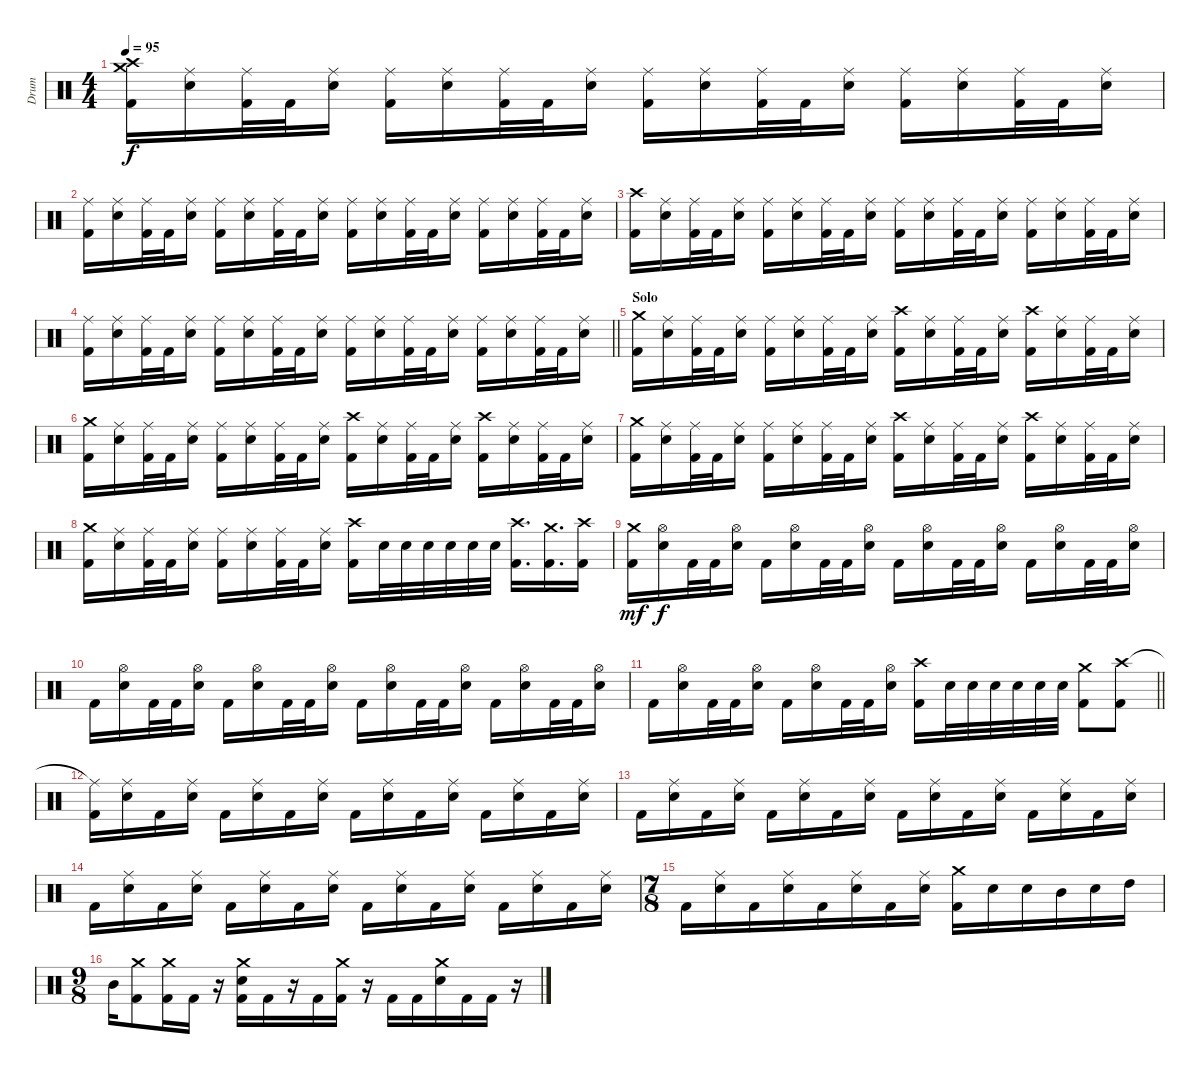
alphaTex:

\track ("Drum" "Drum") {instrument percussion}
\staff {score}
\articulation defaults
\ts (4 4)
\tempo 95
\clef neutral
\ks c
("Crash medium (hit)" "Crash high (hit)" "Kick (hit) 2").16{dy f} ("Ride (middle)" "Electric Snare (hit)").16 ("Ride (middle)" "Kick (hit) 2").32 "Kick (hit) 2".32 ("Ride (middle)" "Electric Snare (hit)").16 ("Ride (middle)" "Kick (hit) 2").16 ("Ride (middle)" "Electric Snare (hit)").16 ("Ride (middle)" "Kick (hit) 2").32 "Kick (hit) 2".32 ("Ride (middle)" "Electric Snare (hit)").16 ("Ride (middle)" "Kick (hit) 2").16 ("Ride (middle)" "Electric Snare (hit)").16 ("Ride (middle)" "Kick (hit) 2").32 "Kick (hit) 2".32 ("Ride (middle)" "Electric Snare (hit)").16 ("Ride (middle)" "Kick (hit) 2").16 ("Ride (middle)" "Electric Snare (hit)").16 ("Ride (middle)" "Kick (hit) 2").32 "Kick (hit) 2".32 ("Ride (middle)" "Electric Snare (hit)").16 |
("Ride (middle)" "Kick (hit) 2").16 ("Ride (middle)" "Electric Snare (hit)").16 ("Ride (middle)" "Kick (hit) 2").32 "Kick (hit) 2".32 ("Ride (middle)" "Electric Snare (hit)").16 ("Ride (middle)" "Kick (hit) 2").16 ("Ride (middle)" "Electric Snare (hit)").16 ("Ride (middle)" "Kick (hit) 2").32 "Kick (hit) 2".32 ("Ride (middle)" "Electric Snare (hit)").16 ("Ride (middle)" "Kick (hit) 2").16 ("Ride (middle)" "Electric Snare (hit)").16 ("Ride (middle)" "Kick (hit) 2").32 "Kick (hit) 2".32 ("Ride (middle)" "Electric Snare (hit)").16 ("Ride (middle)" "Kick (hit) 2").16 ("Ride (middle)" "Electric Snare (hit)").16 ("Ride (middle)" "Kick (hit) 2").32 "Kick (hit) 2".32 ("Ride (middle)" "Electric Snare (hit)").16 |
("Crash high (hit)" "Kick (hit) 2").16 ("Ride (middle)" "Electric Snare (hit)").16 ("Ride (middle)" "Kick (hit) 2").32 "Kick (hit) 2".32 ("Ride (middle)" "Electric Snare (hit)").16 ("Ride (middle)" "Kick (hit) 2").16 ("Ride (middle)" "Electric Snare (hit)").16 ("Ride (middle)" "Kick (hit) 2").32 "Kick (hit) 2".32 ("Ride (middle)" "Electric Snare (hit)").16 ("Ride (middle)" "Kick (hit) 2").16 ("Ride (middle)" "Electric Snare (hit)").16 ("Ride (middle)" "Kick (hit) 2").32 "Kick (hit) 2".32 ("Ride (middle)" "Electric Snare (hit)").16 ("Ride (middle)" "Kick (hit) 2").16 ("Ride (middle)" "Electric Snare (hit)").16 ("Ride (middle)" "Kick (hit) 2").32 "Kick (hit) 2".32 ("Ride (middle)" "Electric Snare (hit)").16 |
\barLineRight lightlight
("Ride (middle)" "Kick (hit) 2").16 ("Ride (middle)" "Electric Snare (hit)").16 ("Ride (middle)" "Kick (hit) 2").32 "Kick (hit) 2".32 ("Ride (middle)" "Electric Snare (hit)").16 ("Ride (middle)" "Kick (hit) 2").16 ("Ride (middle)" "Electric Snare (hit)").16 ("Ride (middle)" "Kick (hit) 2").32 "Kick (hit) 2".32 ("Ride (middle)" "Electric Snare (hit)").16 ("Ride (middle)" "Kick (hit) 2").16 ("Ride (middle)" "Electric Snare (hit)").16 ("Ride (middle)" "Kick (hit) 2").32 "Kick (hit) 2".32 ("Ride (middle)" "Electric Snare (hit)").16 ("Ride (middle)" "Kick (hit) 2").16 ("Ride (middle)" "Electric Snare (hit)").16 ("Ride (middle)" "Kick (hit) 2").32 "Kick (hit) 2".32 ("Ride (middle)" "Electric Snare (hit)").16 |
\section ("" "Solo")
("Crash medium (hit)" "Kick (hit) 2").16 ("Ride (middle)" "Electric Snare (hit)").16 ("Ride (middle)" "Kick (hit) 2").32 "Kick (hit) 2".32 ("Ride (middle)" "Electric Snare (hit)").16 ("Ride (middle)" "Kick (hit) 2").16 ("Ride (middle)" "Electric Snare (hit)").16 ("Ride (middle)" "Kick (hit) 2").32 "Kick (hit) 2".32 ("Ride (middle)" "Electric Snare (hit)").16 ("Crash high (hit)" "Kick (hit) 2").16 ("Ride (middle)" "Electric Snare (hit)").16 ("Ride (middle)" "Kick (hit) 2").32 "Kick (hit) 2".32 ("Ride (middle)" "Electric Snare (hit)").16 ("Crash high (hit)" "Kick (hit) 2").16 ("Ride (middle)" "Electric Snare (hit)").16 ("Ride (middle)" "Kick (hit) 2").32 "Kick (hit) 2".32 ("Ride (middle)" "Electric Snare (hit)").16 |
("Crash medium (hit)" "Kick (hit) 2").16 ("Ride (middle)" "Electric Snare (hit)").16 ("Ride (middle)" "Kick (hit) 2").32 "Kick (hit) 2".32 ("Ride (middle)" "Electric Snare (hit)").16 ("Ride (middle)" "Kick (hit) 2").16 ("Ride (middle)" "Electric Snare (hit)").16 ("Ride (middle)" "Kick (hit) 2").32 "Kick (hit) 2".32 ("Ride (middle)" "Electric Snare (hit)").16 ("Crash high (hit)" "Kick (hit) 2").16 ("Ride (middle)" "Electric Snare (hit)").16 ("Ride (middle)" "Kick (hit) 2").32 "Kick (hit) 2".32 ("Ride (middle)" "Electric Snare (hit)").16 ("Crash high (hit)" "Kick (hit) 2").16 ("Ride (middle)" "Electric Snare (hit)").16 ("Ride (middle)" "Kick (hit) 2").32 "Kick (hit) 2".32 ("Ride (middle)" "Electric Snare (hit)").16 |
("Crash medium (hit)" "Kick (hit) 2").16 ("Ride (middle)" "Electric Snare (hit)").16 ("Ride (middle)" "Kick (hit) 2").32 "Kick (hit) 2".32 ("Ride (middle)" "Electric Snare (hit)").16 ("Ride (middle)" "Kick (hit) 2").16 ("Ride (middle)" "Electric Snare (hit)").16 ("Ride (middle)" "Kick (hit) 2").32 "Kick (hit) 2".32 ("Ride (middle)" "Electric Snare (hit)").16 ("Crash high (hit)" "Kick (hit) 2").16 ("Ride (middle)" "Electric Snare (hit)").16 ("Ride (middle)" "Kick (hit) 2").32 "Kick (hit) 2".32 ("Ride (middle)" "Electric Snare (hit)").16 ("Crash high (hit)" "Kick (hit) 2").16 ("Ride (middle)" "Electric Snare (hit)").16 ("Ride (middle)" "Kick (hit) 2").32 "Kick (hit) 2".32 ("Ride (middle)" "Electric Snare (hit)").16 |
("Crash medium (hit)" "Kick (hit) 2").16 ("Ride (middle)" "Electric Snare (hit)").16 ("Ride (middle)" "Kick (hit) 2").32 "Kick (hit) 2".32 ("Ride (middle)" "Electric Snare (hit)").16 ("Ride (middle)" "Kick (hit) 2").16 ("Ride (middle)" "Electric Snare (hit)").16 ("Ride (middle)" "Kick (hit) 2").32 "Kick (hit) 2".32 ("Ride (middle)" "Electric Snare (hit)").16 ("Crash high (hit)" "Kick (hit) 2").16 "Electric Snare (hit)".32 "Electric Snare (hit)".32 "Electric Snare (hit)".32 "Electric Snare (hit)".32 "Electric Snare (hit)".32 "Electric Snare (hit)".32 ("Crash high (hit)" "Kick (hit) 2").16{d} ("Crash medium (hit)" "Kick (hit) 2").16{d} ("Crash high (hit)" "Kick (hit) 2").16 |
("Crash medium (hit)" "Kick (hit) 2").16{dy mf} ("Hi-Hat (open)" "Electric Snare (hit)").16{dy f} "Kick (hit) 2".32 "Kick (hit) 2".32 ("Hi-Hat (open)" "Electric Snare (hit)").16 "Kick (hit) 2".16 ("Hi-Hat (open)" "Electric Snare (hit)").16 "Kick (hit) 2".32 "Kick (hit) 2".32 ("Hi-Hat (open)" "Electric Snare (hit)").16 "Kick (hit) 2".16 ("Hi-Hat (open)" "Electric Snare (hit)").16 "Kick (hit) 2".32 "Kick (hit) 2".32 ("Hi-Hat (open)" "Electric Snare (hit)").16 "Kick (hit) 2".16 ("Hi-Hat (open)" "Electric Snare (hit)").16 "Kick (hit) 2".32 "Kick (hit) 2".32 ("Hi-Hat (open)" "Electric Snare (hit)").16 |
"Kick (hit) 2".16 ("Hi-Hat (open)" "Electric Snare (hit)").16 "Kick (hit) 2".32 "Kick (hit) 2".32 ("Hi-Hat (open)" "Electric Snare (hit)").16 "Kick (hit) 2".16 ("Hi-Hat (open)" "Electric Snare (hit)").16 "Kick (hit) 2".32 "Kick (hit) 2".32 ("Hi-Hat (open)" "Electric Snare (hit)").16 "Kick (hit) 2".16 ("Hi-Hat (open)" "Electric Snare (hit)").16 "Kick (hit) 2".32 "Kick (hit) 2".32 ("Hi-Hat (open)" "Electric Snare (hit)").16 "Kick (hit) 2".16 ("Hi-Hat (open)" "Electric Snare (hit)").16 "Kick (hit) 2".32 "Kick (hit) 2".32 ("Hi-Hat (open)" "Electric Snare (hit)").16 |
\barLineRight lightlight "Kick (hit) 2".16
("Hi-Hat (open)" "Electric Snare (hit)").16 "Kick (hit) 2".32 "Kick (hit) 2".32 ("Hi-Hat (open)" "Electric Snare (hit)").16 "Kick (hit) 2".16 ("Hi-Hat (open)" "Electric Snare (hit)").16 "Kick (hit) 2".32 "Kick (hit) 2".32 ("Hi-Hat (open)" "Electric Snare (hit)").16 ("Crash high (hit)" "Kick (hit) 2").16 "Electric Snare (hit)".32 "Electric Snare (hit)".32 "Electric Snare (hit)".32 "Electric Snare (hit)".32 "Electric Snare (hit)".32 "Electric Snare (hit)".32 ("Crash medium (hit)" "Kick (hit) 2").8 ("Crash high (hit)" "Kick (hit) 2").8 |
("Ride (middle)"{t} "Kick (hit) 2").16 ("Ride (middle)" "Electric Snare (hit)").16 "Kick (hit) 2".16 ("Ride (middle)" "Electric Snare (hit)").16 "Kick (hit) 2".16 ("Ride (middle)" "Electric Snare (hit)").16 "Kick (hit) 2".16 ("Ride (middle)" "Electric Snare (hit)").16 "Kick (hit) 2".16 ("Ride (middle)" "Electric Snare (hit)").16 "Kick (hit) 2".16 ("Ride (middle)" "Electric Snare (hit)").16 "Kick (hit) 2".16 ("Ride (middle)" "Electric Snare (hit)").16 "Kick (hit) 2".16 ("Ride (middle)" "Electric Snare (hit)").16 |
"Kick (hit) 2".16 ("Ride (middle)" "Electric Snare (hit)").16 "Kick (hit) 2".16 ("Ride (middle)" "Electric Snare (hit)").16 "Kick (hit) 2".16 ("Ride (middle)" "Electric Snare (hit)").16 "Kick (hit) 2".16 ("Ride (middle)" "Electric Snare (hit)").16 "Kick (hit) 2".16 ("Ride (middle)" "Electric Snare (hit)").16 "Kick (hit) 2".16 ("Ride (middle)" "Electric Snare (hit)").16 "Kick (hit) 2".16 ("Ride (middle)" "Electric Snare (hit)").16 "Kick (hit) 2".16 ("Ride (middle)" "Electric Snare (hit)").16 |
"Kick (hit) 2".16 ("Ride (middle)" "Electric Snare (hit)").16 "Kick (hit) 2".16 ("Ride (middle)" "Electric Snare (hit)").16 "Kick (hit) 2".16 ("Ride (middle)" "Electric Snare (hit)").16 "Kick (hit) 2".16 ("Ride (middle)" "Electric Snare (hit)").16 "Kick (hit) 2".16 ("Ride (middle)" "Electric Snare (hit)").16 "Kick (hit) 2".16 ("Ride (middle)" "Electric Snare (hit)").16 "Kick (hit) 2".16 ("Ride (middle)" "Electric Snare (hit)").16 "Kick (hit) 2".16 ("Ride (middle)" "Electric Snare (hit)").16 |
\ts (7 8)
"Kick (hit) 2".16 ("Ride (middle)" "Electric Snare (hit)").16 "Kick (hit) 2".16 ("Ride (middle)" "Electric Snare (hit)").16 "Kick (hit) 2".16 ("Ride (middle)" "Electric Snare (hit)").16 "Kick (hit) 2".16 ("Ride (middle)" "Electric Snare (hit)").16 ("Crash medium (hit)" "Kick (hit) 2").16 "Electric Snare (hit)".16 "Electric Snare (hit)".16 "Mid Tom (hit)".16 "Electric Snare (hit)".16 "High Tom (hit)".16 |
\ts (9 8)
"Mid Tom (hit)".16 ("Crash medium (hit)" "Kick (hit) 2").8 ("Crash medium (hit)" "Kick (hit) 2").16 "Kick (hit) 2".16 r.16 ("Crash medium (hit)" "Electric Snare (hit)" "Kick (hit) 2").16 "Kick (hit) 2".16 r.16 "Kick (hit) 2".16 ("Crash medium (hit)" "Kick (hit) 2").16 r.16 "Kick (hit) 2".16 "Kick (hit) 2".16 ("Crash medium (hit)" "Electric Snare (hit)").16 "Kick (hit) 2".16 "Kick (hit) 2".16 r.16
